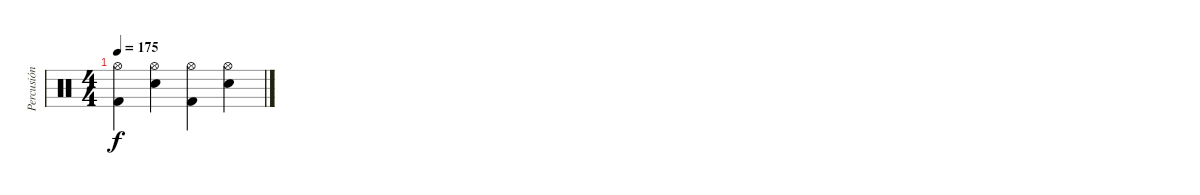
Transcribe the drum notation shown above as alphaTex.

\track ("Percusión" "Percusión") {instrument percussion}
\staff {score}
\articulation defaults
\ts (4 4)
\tempo 175
\clef neutral
\ks c
("Kick (hit) 2" "Hi-Hat (open)").4{dy f} ("Electric Snare (hit)" "Hi-Hat (open)").4 ("Kick (hit) 2" "Hi-Hat (open)").4 ("Electric Snare (hit)" "Hi-Hat (open)").4
